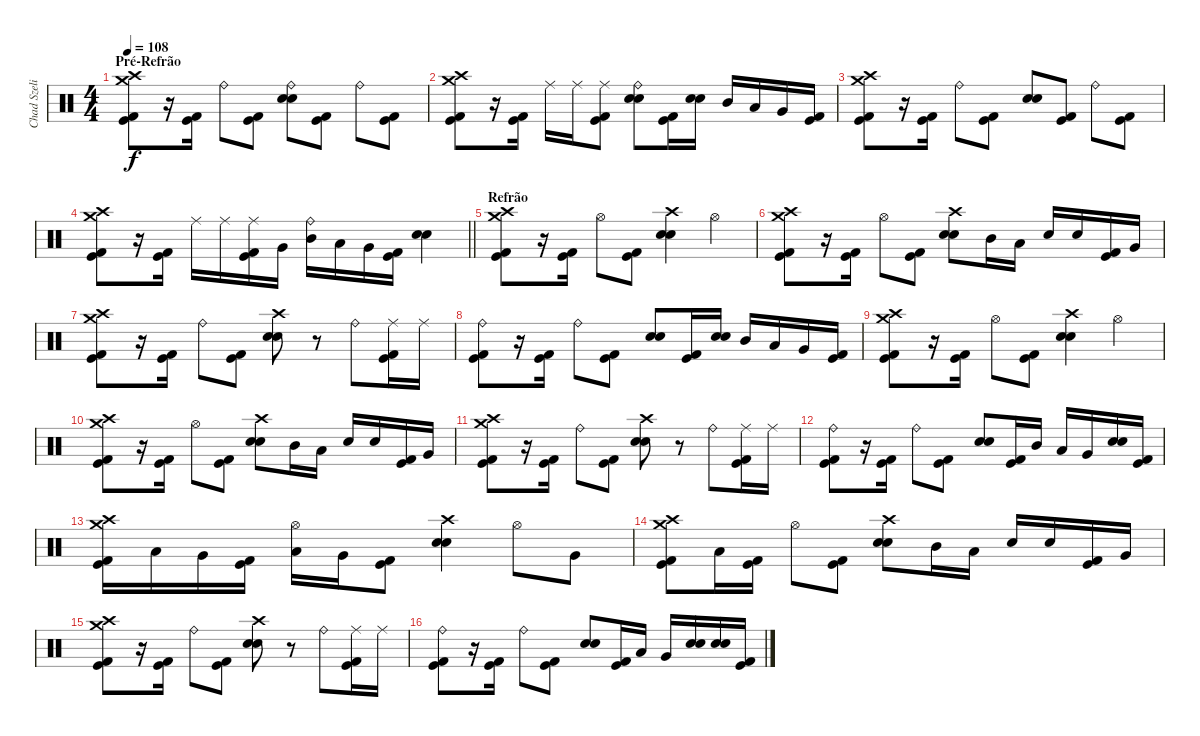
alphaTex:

\track ("Chad Szeliga" "Chad Szeli") {instrument percussion}
\staff {score}
\articulation defaults
\ts (4 4)
\section ("" "Pré-Refrão")
\tempo 108
\clef neutral
\ks c
("Crash high (hit)" "Kick (hit) 2" "Kick (hit)" "Crash medium (hit)").8{dy f} r.16 ("Kick (hit) 2" "Kick (hit)").16{beam Down} "Ride (bell)".8 ("Kick (hit) 2" "Kick (hit)").8 ("Ride (bell)" "Snare (hit) 2" "Snare (hit) 2").8 ("Kick (hit) 2" "Kick (hit)").8 "Ride (bell)".8 ("Kick (hit) 2" "Kick (hit)").8 |
("Crash high (hit)" "Kick (hit) 2" "Kick (hit)" "Crash medium (hit)").8 r.16 ("Kick (hit) 2" "Kick (hit)").16{beam Down} "Ride (middle)".16 "Ride (middle)".16 ("Ride (middle)" "Kick (hit)" "Kick (hit) 2").8 ("Ride (bell)" "Snare (hit) 2" "Snare (hit) 2").8 ("Kick (hit) 2" "Kick (hit)").16 ("Snare (hit) 2" "Snare (hit) 2").16 "Mid Tom (hit)".16 "Low Tom (hit)".16 "Very Low Tom (hit)".16 ("Kick (hit) 2" "Kick (hit)").16 |
("Crash high (hit)" "Kick (hit) 2" "Kick (hit)" "Crash medium (hit)").8 r.16 ("Kick (hit) 2" "Kick (hit)").16{beam Down} "Ride (bell)".8 ("Kick (hit) 2" "Kick (hit)").8 ("Snare (hit) 2" "Snare (hit) 2").8 ("Kick (hit) 2" "Kick (hit)").8 "Ride (bell)".8 ("Kick (hit) 2" "Kick (hit)").8 |
\barLineRight lightlight
("Crash high (hit)" "Kick (hit) 2" "Kick (hit)" "Crash medium (hit)").8 r.16 ("Kick (hit) 2" "Kick (hit)").16{beam Down} "Ride (middle)".16 "Ride (middle)".16 ("Ride (middle)" "Kick (hit)" "Kick (hit) 2").16 "Very Low Tom (hit)".16 ("Ride (bell)" "Mid Tom (hit)").16 "Low Tom (hit)".16 "Very Low Tom (hit)".16 ("Kick (hit) 2" "Kick (hit)").16 ("Snare (hit) 2" "Snare (hit) 2").4 |
\section ("" "Refrão")
("Crash high (hit)" "Kick (hit) 2" "Kick (hit)" "Crash medium (hit)").8 r.16 ("Kick (hit) 2" "Kick (hit)").16{beam Down} "Hi-Hat (open)".8 ("Kick (hit) 2" "Kick (hit)").8 ("Crash high (hit)" "Snare (hit) 2" "Snare (hit) 2").4 "Hi-Hat (open)".4 |
("Crash high (hit)" "Kick (hit) 2" "Kick (hit)" "Crash medium (hit)").8 r.16 ("Kick (hit) 2" "Kick (hit)").16{beam Down} "Hi-Hat (open)".8 ("Kick (hit) 2" "Kick (hit)").8 ("Crash high (hit)" "Snare (hit) 2" "Snare (hit) 2").8 "Mid Tom (hit)".16 "Low Tom (hit)".16 "Snare (hit) 2".16 "Snare (hit) 2".16 ("Kick (hit) 2" "Kick (hit)").16 "Very Low Tom (hit)".16 |
("Crash high (hit)" "Kick (hit) 2" "Kick (hit)" "Crash medium (hit)").8 r.16 ("Kick (hit) 2" "Kick (hit)").16{beam Down} "Ride (bell)".8 ("Kick (hit) 2" "Kick (hit)").8 ("Crash high (hit)" "Snare (hit) 2" "Snare (hit) 2").8 r.8 "Ride (bell)".8 ("Ride (middle)" "Kick (hit) 2" "Kick (hit)").16 "Ride (middle)".16 |
("Ride (bell)" "Kick (hit) 2" "Kick (hit)").8 r.16 ("Kick (hit) 2" "Kick (hit)").16{beam Down} "Ride (bell)".8 ("Kick (hit) 2" "Kick (hit)").8 ("Snare (hit) 2" "Snare (hit) 2").8 ("Kick (hit) 2" "Kick (hit)").16 ("Snare (hit) 2" "Snare (hit) 2").16 "Mid Tom (hit)".16 "Low Tom (hit)".16 "Very Low Tom (hit)".16 ("Kick (hit) 2" "Kick (hit)").16 |
("Crash high (hit)" "Kick (hit) 2" "Kick (hit)" "Crash medium (hit)").8 r.16 ("Kick (hit) 2" "Kick (hit)").16{beam Down} "Hi-Hat (open)".8 ("Kick (hit) 2" "Kick (hit)").8 ("Crash high (hit)" "Snare (hit) 2" "Snare (hit) 2").4 "Hi-Hat (open)".4 |
("Crash high (hit)" "Kick (hit) 2" "Kick (hit)" "Crash medium (hit)").8 r.16 ("Kick (hit) 2" "Kick (hit)").16{beam Down} "Hi-Hat (open)".8 ("Kick (hit) 2" "Kick (hit)").8 ("Crash high (hit)" "Snare (hit) 2" "Snare (hit) 2").8 "Mid Tom (hit)".16 "Low Tom (hit)".16 "Snare (hit) 2".16 "Snare (hit) 2".16 ("Kick (hit) 2" "Kick (hit)").16 "Very Low Tom (hit)".16 |
("Crash high (hit)" "Kick (hit) 2" "Kick (hit)" "Crash medium (hit)").8 r.16 ("Kick (hit) 2" "Kick (hit)").16{beam Down} "Ride (bell)".8 ("Kick (hit) 2" "Kick (hit)").8 ("Crash high (hit)" "Snare (hit) 2" "Snare (hit) 2").8 r.8 "Ride (bell)".8 ("Ride (middle)" "Kick (hit) 2" "Kick (hit)").16 "Ride (middle)".16 |
("Ride (bell)" "Kick (hit) 2" "Kick (hit)").8 r.16 ("Kick (hit) 2" "Kick (hit)").16{beam Down} "Ride (bell)".8 ("Kick (hit) 2" "Kick (hit)").8 ("Snare (hit) 2" "Snare (hit) 2").8 ("Kick (hit) 2" "Kick (hit)").16 "Mid Tom (hit)".16 "Low Tom (hit)".16 "Very Low Tom (hit)".16 ("Snare (hit) 2" "Snare (hit) 2").16 ("Kick (hit) 2" "Kick (hit)").16 |
("Crash high (hit)" "Kick (hit) 2" "Kick (hit)" "Crash medium (hit)").16 "Low Tom (hit)".16 "Very Low Tom (hit)".16 ("Kick (hit) 2" "Kick (hit)").16 ("Low Tom (hit)" "Hi-Hat (open)").16 "Very Low Tom (hit)".16 ("Kick (hit) 2" "Kick (hit)").8 ("Crash high (hit)" "Snare (hit) 2" "Snare (hit) 2").4 "Hi-Hat (open)".8 "Very Low Tom (hit)".8 |
("Crash high (hit)" "Kick (hit) 2" "Kick (hit)" "Crash medium (hit)").8 "Low Tom (hit)".16 ("Kick (hit) 2" "Kick (hit)").16 "Hi-Hat (open)".8 ("Kick (hit) 2" "Kick (hit)").8 ("Crash high (hit)" "Snare (hit) 2" "Snare (hit) 2").8 "Mid Tom (hit)".16 "Low Tom (hit)".16 "Snare (hit) 2".16 "Snare (hit) 2".16 ("Kick (hit) 2" "Kick (hit)").16 "Very Low Tom (hit)".16 |
("Crash high (hit)" "Kick (hit) 2" "Kick (hit)" "Crash medium (hit)").8 r.16 ("Kick (hit) 2" "Kick (hit)").16{beam Down} "Ride (bell)".8 ("Kick (hit) 2" "Kick (hit)").8 ("Crash high (hit)" "Snare (hit) 2" "Snare (hit) 2").8 r.8 "Ride (bell)".8 ("Ride (middle)" "Kick (hit) 2" "Kick (hit)").16 "Ride (middle)".16 |
("Ride (bell)" "Kick (hit) 2" "Kick (hit)").8 r.16 ("Kick (hit) 2" "Kick (hit)").16{beam Down} "Ride (bell)".8 ("Kick (hit) 2" "Kick (hit)").8 ("Snare (hit) 2" "Snare (hit) 2").8 ("Kick (hit) 2" "Kick (hit)").16 "Low Tom (hit)".16 "Very Low Tom (hit)".16 ("Snare (hit) 2" "Snare (hit) 2").16 ("Snare (hit) 2" "Snare (hit) 2").16 ("Kick (hit) 2" "Kick (hit)").16
